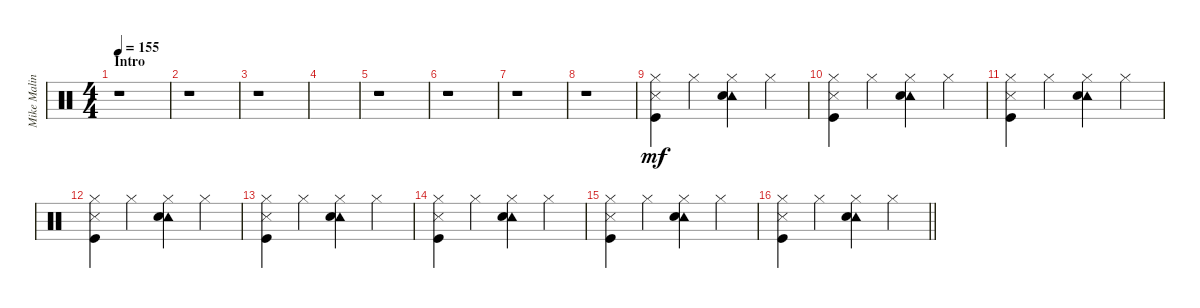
\track ("Mike Malinin - Drums" "Mike Malin") {instrument percussion}
\staff {score}
\articulation defaults
\ts (4 4)
\section ("" "Intro")
\tempo 155
\clef neutral
\ks c
r.1{dy mf} |
r.1 |
r.1 |
|
r.1 |
r.1 |
r.1 |
r.1 |
("Hi-Hat (closed)" "Metronome (hit)" "Kick (hit)").4 "Hi-Hat (closed)".4 ("Tambourine (hit)" "Hi-Hat (closed)" "Electric Snare (hit)").4 "Hi-Hat (closed)".4 |
("Hi-Hat (closed)" "Metronome (hit)" "Kick (hit)").4 "Hi-Hat (closed)".4 ("Tambourine (hit)" "Hi-Hat (closed)" "Electric Snare (hit)").4 "Hi-Hat (closed)".4 |
("Hi-Hat (closed)" "Metronome (hit)" "Kick (hit)").4 "Hi-Hat (closed)".4 ("Tambourine (hit)" "Hi-Hat (closed)" "Electric Snare (hit)").4 "Hi-Hat (closed)".4 |
("Hi-Hat (closed)" "Metronome (hit)" "Kick (hit)").4 "Hi-Hat (closed)".4 ("Tambourine (hit)" "Hi-Hat (closed)" "Electric Snare (hit)").4 "Hi-Hat (closed)".4 |
("Hi-Hat (closed)" "Metronome (hit)" "Kick (hit)").4 "Hi-Hat (closed)".4 ("Tambourine (hit)" "Hi-Hat (closed)" "Electric Snare (hit)").4 "Hi-Hat (closed)".4 |
("Hi-Hat (closed)" "Metronome (hit)" "Kick (hit)").4 "Hi-Hat (closed)".4 ("Tambourine (hit)" "Hi-Hat (closed)" "Electric Snare (hit)").4 "Hi-Hat (closed)".4 |
("Hi-Hat (closed)" "Metronome (hit)" "Kick (hit)").4 "Hi-Hat (closed)".4 ("Tambourine (hit)" "Hi-Hat (closed)" "Electric Snare (hit)").4 "Hi-Hat (closed)".4 |
\barLineRight lightlight
("Hi-Hat (closed)" "Metronome (hit)" "Kick (hit)").4 "Hi-Hat (closed)".4 ("Tambourine (hit)" "Hi-Hat (closed)" "Electric Snare (hit)").4 "Hi-Hat (closed)".4
